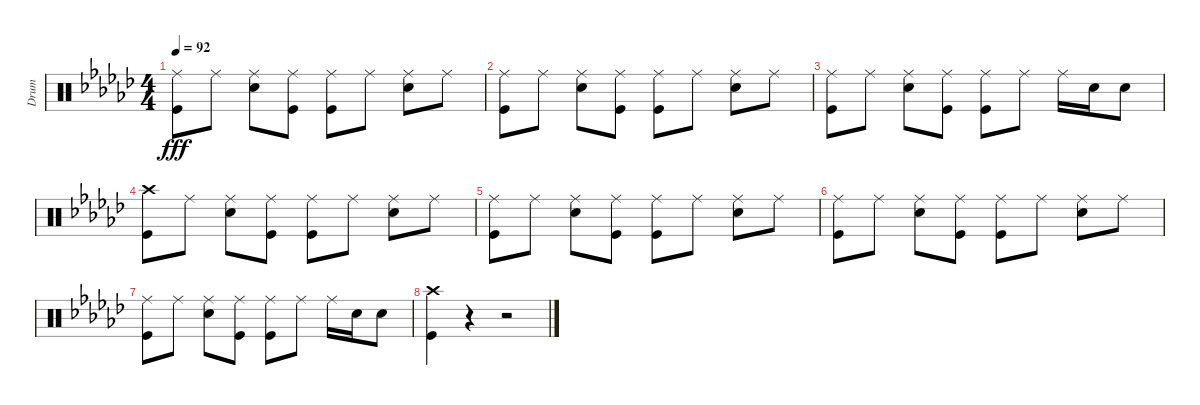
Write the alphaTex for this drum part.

\track ("Drum" "Drum") {instrument percussion}
\staff {score}
\articulation defaults
\ts (4 4)
\tempo 92
\clef neutral
\ks gb
("Ride (middle)" "Kick (hit)").8{dy fff} "Ride (middle)".8 ("Ride (middle)" "Snare (hit) 2").8 ("Ride (middle)" "Kick (hit)").8 ("Ride (middle)" "Kick (hit)").8 "Ride (middle)".8 ("Ride (middle)" "Snare (hit) 2").8 "Ride (middle)".8 |
("Ride (middle)" "Kick (hit)").8 "Ride (middle)".8 ("Ride (middle)" "Snare (hit) 2").8 ("Ride (middle)" "Kick (hit)").8 ("Ride (middle)" "Kick (hit)").8 "Ride (middle)".8 ("Ride (middle)" "Snare (hit) 2").8 "Ride (middle)".8 |
("Ride (middle)" "Kick (hit)").8 "Ride (middle)".8 ("Ride (middle)" "Snare (hit) 2").8 ("Ride (middle)" "Kick (hit)").8 ("Ride (middle)" "Kick (hit)").8 "Ride (middle)".8 "Ride (middle)".16 "Snare (hit) 2".16 "Snare (hit) 2".8 |
("Crash high (hit)" "Kick (hit)").8 "Ride (middle)".8 ("Ride (middle)" "Snare (hit) 2").8 ("Ride (middle)" "Kick (hit)").8 ("Ride (middle)" "Kick (hit)").8 "Ride (middle)".8 ("Ride (middle)" "Snare (hit) 2").8 "Ride (middle)".8 |
("Ride (middle)" "Kick (hit)").8 "Ride (middle)".8 ("Ride (middle)" "Snare (hit) 2").8 ("Ride (middle)" "Kick (hit)").8 ("Ride (middle)" "Kick (hit)").8 "Ride (middle)".8 ("Ride (middle)" "Snare (hit) 2").8 "Ride (middle)".8 |
("Ride (middle)" "Kick (hit)").8 "Ride (middle)".8 ("Ride (middle)" "Snare (hit) 2").8 ("Ride (middle)" "Kick (hit)").8 ("Ride (middle)" "Kick (hit)").8 "Ride (middle)".8 ("Ride (middle)" "Snare (hit) 2").8 "Ride (middle)".8 |
("Ride (middle)" "Kick (hit)").8 "Ride (middle)".8 ("Ride (middle)" "Snare (hit) 2").8 ("Ride (middle)" "Kick (hit)").8 ("Ride (middle)" "Kick (hit)").8 "Ride (middle)".8 "Ride (middle)".16 "Snare (hit) 2".16 "Snare (hit) 2".8 |
("Crash high (hit)" "Kick (hit)").4 r.4 r.2
